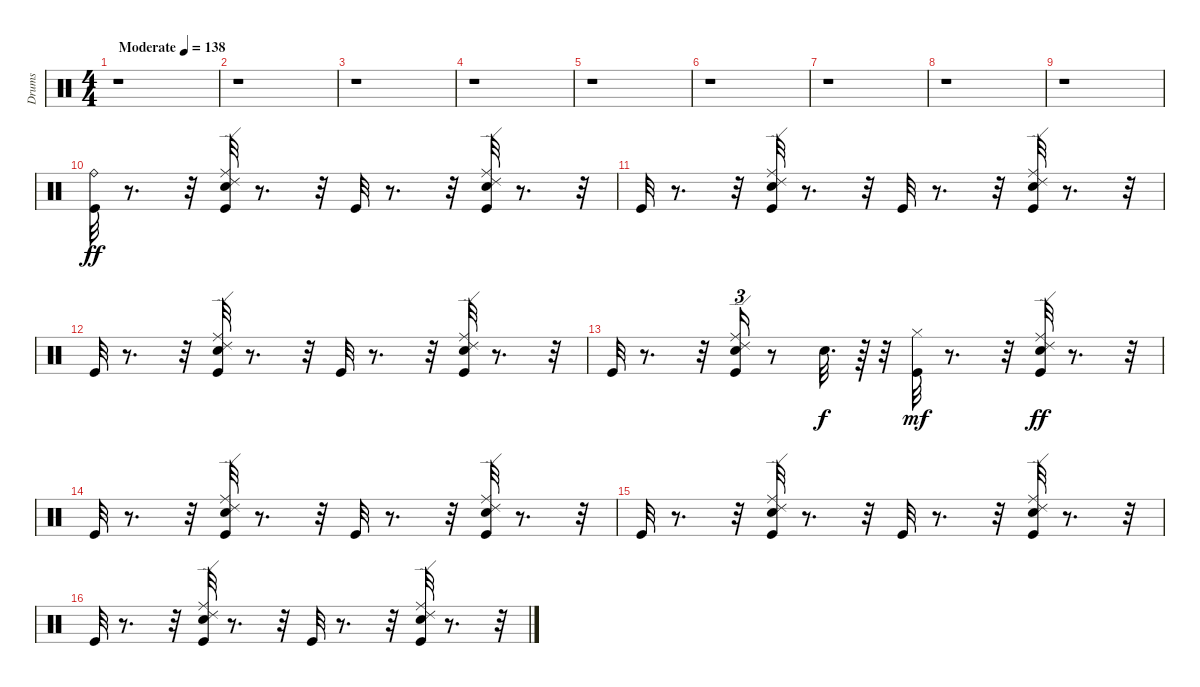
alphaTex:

\track ("Drums" "Drums") {instrument percussion}
\staff {score}
\articulation defaults
\ts (4 4)
\tempo (138 "Moderate")
\clef neutral
\ks c
r.1{dy ff} |
r.1 |
r.1 |
r.1 |
r.1 |
r.1 |
r.1 |
r.1 |
r.1 |
("Ride (bell)" "Kick (hit)").32 r.8{d} r.32 ("Hand Clap (hit)" "Kick (hit)" "Ride (middle)" "Ride (edge) 2").32 r.8{d} r.32 "Kick (hit)".32 r.8{d} r.32 ("Ride (middle)" "Ride (edge) 2" "Hand Clap (hit)" "Kick (hit)").32 r.8{d} r.32 |
"Kick (hit)".32 r.8{d} r.32 ("Ride (middle)" "Ride (edge) 2" "Kick (hit)" "Hand Clap (hit)").32 r.8{d} r.32 "Kick (hit)".32 r.8{d} r.32 ("Ride (middle)" "Ride (edge) 2" "Kick (hit)" "Hand Clap (hit)").32 r.8{d} r.32 |
"Kick (hit)".32 r.8{d} r.32 ("Kick (hit)" "Hand Clap (hit)" "Ride (middle)" "Ride (edge) 2").32 r.8{d} r.32 "Kick (hit)".32 r.8{d} r.32 ("Ride (middle)" "Ride (edge) 2" "Hand Clap (hit)" "Kick (hit)").32 r.8{d} r.32 |
"Kick (hit)".32 r.8{d} r.32 ("Ride (middle)" "Ride (edge) 2" "Kick (hit)" "Hand Clap (hit)").16{tu (3 2)} r.8 "Hand Clap (hit)".32{d dy f} r.64 r.32 ("Kick (hit)" "Hi-Hat (closed)").32{dy mf} r.8{d} r.32 ("Ride (middle)" "Ride (edge) 2" "Hand Clap (hit)" "Kick (hit)").32{dy ff} r.8{d} r.32 |
"Kick (hit)".32 r.8{d} r.32 ("Hand Clap (hit)" "Kick (hit)" "Ride (middle)" "Ride (edge) 2").32 r.8{d} r.32 "Kick (hit)".32 r.8{d} r.32 ("Ride (middle)" "Ride (edge) 2" "Hand Clap (hit)" "Kick (hit)").32 r.8{d} r.32 |
"Kick (hit)".32 r.8{d} r.32 ("Ride (middle)" "Ride (edge) 2" "Kick (hit)" "Hand Clap (hit)").32 r.8{d} r.32 "Kick (hit)".32 r.8{d} r.32 ("Ride (middle)" "Ride (edge) 2" "Kick (hit)" "Hand Clap (hit)").32 r.8{d} r.32 |
"Kick (hit)".32 r.8{d} r.32 ("Kick (hit)" "Hand Clap (hit)" "Ride (middle)" "Ride (edge) 2").32 r.8{d} r.32 "Kick (hit)".32 r.8{d} r.32 ("Ride (middle)" "Ride (edge) 2" "Hand Clap (hit)" "Kick (hit)").32 r.8{d} r.32
